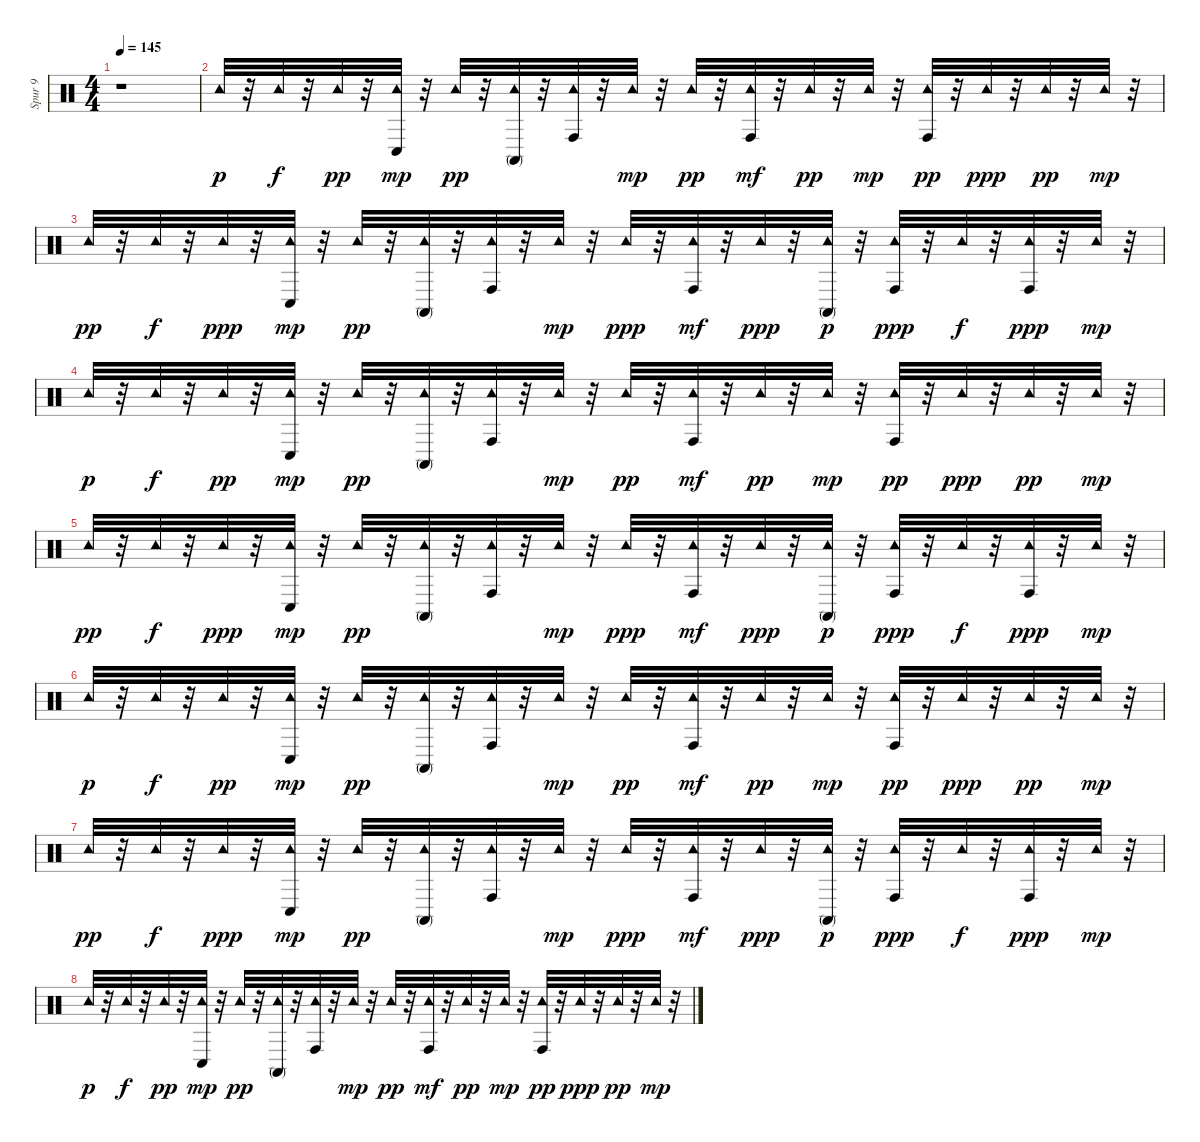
\track ("Spur 9" "Spur 9") {instrument percussion}
\staff {score}
\articulation defaults
\ts (4 4)
\tempo 145
\clef neutral
\ks c
r.1{dy p} |
"Tambourine (hit)".32 r.32 "Tambourine (hit)".32{dy f} r.32 "Tambourine (hit)".32{dy pp} r.32 ("Tambourine (hit)" "Conga low (hit)").32{dy mp} r.32 "Tambourine (hit)".32{dy pp} r.32 ("Tambourine (hit)" "Conga high (mute)").32 r.32 ("Conga high (hit)" "Tambourine (hit)").32 r.32 "Tambourine (hit)".32{dy mp} r.32 "Tambourine (hit)".32{dy pp} r.32 ("Tambourine (hit)" "Conga high (hit)").32{dy mf} r.32 "Tambourine (hit)".32{dy pp} r.32 "Tambourine (hit)".32{dy mp} r.32 ("Conga high (hit)" "Tambourine (hit)").32{dy pp} r.32 "Tambourine (hit)".32{dy ppp} r.32 "Tambourine (hit)".32{dy pp} r.32 "Tambourine (hit)".32{dy mp} r.32 |
"Tambourine (hit)".32{dy pp} r.32 "Tambourine (hit)".32{dy f} r.32 "Tambourine (hit)".32{dy ppp} r.32 ("Tambourine (hit)" "Conga low (hit)").32{dy mp} r.32 "Tambourine (hit)".32{dy pp} r.32 ("Tambourine (hit)" "Conga high (mute)").32 r.32 ("Conga high (hit)" "Tambourine (hit)").32 r.32 "Tambourine (hit)".32{dy mp} r.32 "Tambourine (hit)".32{dy ppp} r.32 ("Tambourine (hit)" "Conga high (hit)").32{dy mf} r.32 "Tambourine (hit)".32{dy ppp} r.32 ("Tambourine (hit)" "Conga high (mute)").32{dy p} r.32 ("Conga high (hit)" "Tambourine (hit)").32{dy ppp} r.32 "Tambourine (hit)".32{dy f} r.32 ("Conga high (hit)" "Tambourine (hit)").32{dy ppp} r.32 "Tambourine (hit)".32{dy mp} r.32 |
"Tambourine (hit)".32{dy p} r.32 "Tambourine (hit)".32{dy f} r.32 "Tambourine (hit)".32{dy pp} r.32 ("Tambourine (hit)" "Conga low (hit)").32{dy mp} r.32 "Tambourine (hit)".32{dy pp} r.32 ("Tambourine (hit)" "Conga high (mute)").32 r.32 ("Conga high (hit)" "Tambourine (hit)").32 r.32 "Tambourine (hit)".32{dy mp} r.32 "Tambourine (hit)".32{dy pp} r.32 ("Tambourine (hit)" "Conga high (hit)").32{dy mf} r.32 "Tambourine (hit)".32{dy pp} r.32 "Tambourine (hit)".32{dy mp} r.32 ("Conga high (hit)" "Tambourine (hit)").32{dy pp} r.32 "Tambourine (hit)".32{dy ppp} r.32 "Tambourine (hit)".32{dy pp} r.32 "Tambourine (hit)".32{dy mp} r.32 |
"Tambourine (hit)".32{dy pp} r.32 "Tambourine (hit)".32{dy f} r.32 "Tambourine (hit)".32{dy ppp} r.32 ("Tambourine (hit)" "Conga low (hit)").32{dy mp} r.32 "Tambourine (hit)".32{dy pp} r.32 ("Tambourine (hit)" "Conga high (mute)").32 r.32 ("Conga high (hit)" "Tambourine (hit)").32 r.32 "Tambourine (hit)".32{dy mp} r.32 "Tambourine (hit)".32{dy ppp} r.32 ("Tambourine (hit)" "Conga high (hit)").32{dy mf} r.32 "Tambourine (hit)".32{dy ppp} r.32 ("Tambourine (hit)" "Conga high (mute)").32{dy p} r.32 ("Conga high (hit)" "Tambourine (hit)").32{dy ppp} r.32 "Tambourine (hit)".32{dy f} r.32 ("Conga high (hit)" "Tambourine (hit)").32{dy ppp} r.32 "Tambourine (hit)".32{dy mp} r.32 |
"Tambourine (hit)".32{dy p} r.32 "Tambourine (hit)".32{dy f} r.32 "Tambourine (hit)".32{dy pp} r.32 ("Tambourine (hit)" "Conga low (hit)").32{dy mp} r.32 "Tambourine (hit)".32{dy pp} r.32 ("Tambourine (hit)" "Conga high (mute)").32 r.32 ("Conga high (hit)" "Tambourine (hit)").32 r.32 "Tambourine (hit)".32{dy mp} r.32 "Tambourine (hit)".32{dy pp} r.32 ("Tambourine (hit)" "Conga high (hit)").32{dy mf} r.32 "Tambourine (hit)".32{dy pp} r.32 "Tambourine (hit)".32{dy mp} r.32 ("Conga high (hit)" "Tambourine (hit)").32{dy pp} r.32 "Tambourine (hit)".32{dy ppp} r.32 "Tambourine (hit)".32{dy pp} r.32 "Tambourine (hit)".32{dy mp} r.32 |
"Tambourine (hit)".32{dy pp} r.32 "Tambourine (hit)".32{dy f} r.32 "Tambourine (hit)".32{dy ppp} r.32 ("Tambourine (hit)" "Conga low (hit)").32{dy mp} r.32 "Tambourine (hit)".32{dy pp} r.32 ("Tambourine (hit)" "Conga high (mute)").32 r.32 ("Conga high (hit)" "Tambourine (hit)").32 r.32 "Tambourine (hit)".32{dy mp} r.32 "Tambourine (hit)".32{dy ppp} r.32 ("Tambourine (hit)" "Conga high (hit)").32{dy mf} r.32 "Tambourine (hit)".32{dy ppp} r.32 ("Tambourine (hit)" "Conga high (mute)").32{dy p} r.32 ("Conga high (hit)" "Tambourine (hit)").32{dy ppp} r.32 "Tambourine (hit)".32{dy f} r.32 ("Conga high (hit)" "Tambourine (hit)").32{dy ppp} r.32 "Tambourine (hit)".32{dy mp} r.32 |
"Tambourine (hit)".32{dy p} r.32 "Tambourine (hit)".32{dy f} r.32 "Tambourine (hit)".32{dy pp} r.32 ("Tambourine (hit)" "Conga low (hit)").32{dy mp} r.32 "Tambourine (hit)".32{dy pp} r.32 ("Tambourine (hit)" "Conga high (mute)").32 r.32 ("Conga high (hit)" "Tambourine (hit)").32 r.32 "Tambourine (hit)".32{dy mp} r.32 "Tambourine (hit)".32{dy pp} r.32 ("Tambourine (hit)" "Conga high (hit)").32{dy mf} r.32 "Tambourine (hit)".32{dy pp} r.32 "Tambourine (hit)".32{dy mp} r.32 ("Conga high (hit)" "Tambourine (hit)").32{dy pp} r.32 "Tambourine (hit)".32{dy ppp} r.32 "Tambourine (hit)".32{dy pp} r.32 "Tambourine (hit)".32{dy mp} r.32
